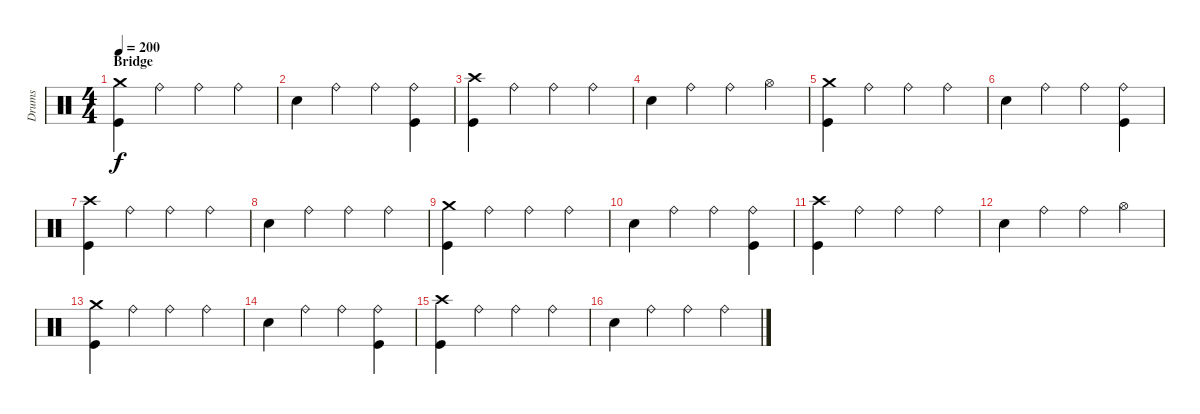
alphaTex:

\track ("Drums" "Drums") {instrument percussion}
\staff {score}
\articulation defaults
\ts (4 4)
\section ("" "Bridge")
\tempo 200
\clef neutral
\ks c
("Crash medium (hit)" "Kick (hit)").4{dy f} "Ride (bell)".4 "Ride (bell)".4 "Ride (bell)".4 |
"Electric Snare (hit)".4 "Ride (bell)".4 "Ride (bell)".4 ("Ride (bell)" "Kick (hit)").4 |
("Crash high (hit)" "Kick (hit)").4 "Ride (bell)".4 "Ride (bell)".4 "Ride (bell)".4 |
"Electric Snare (hit)".4 "Ride (bell)".4 "Ride (bell)".4 "Hi-Hat (open)".4 |
("Crash medium (hit)" "Kick (hit)").4 "Ride (bell)".4 "Ride (bell)".4 "Ride (bell)".4 |
"Electric Snare (hit)".4 "Ride (bell)".4 "Ride (bell)".4 ("Ride (bell)" "Kick (hit)").4 |
("Crash high (hit)" "Kick (hit)").4 "Ride (bell)".4 "Ride (bell)".4 "Ride (bell)".4 |
"Electric Snare (hit)".4 "Ride (bell)".4 "Ride (bell)".4 "Ride (bell)".4 |
("Crash medium (hit)" "Kick (hit)").4 "Ride (bell)".4 "Ride (bell)".4 "Ride (bell)".4 |
"Electric Snare (hit)".4 "Ride (bell)".4 "Ride (bell)".4 ("Ride (bell)" "Kick (hit)").4 |
("Crash high (hit)" "Kick (hit)").4 "Ride (bell)".4 "Ride (bell)".4 "Ride (bell)".4 |
"Electric Snare (hit)".4 "Ride (bell)".4 "Ride (bell)".4 "Hi-Hat (open)".4 |
("Crash medium (hit)" "Kick (hit)").4 "Ride (bell)".4 "Ride (bell)".4 "Ride (bell)".4 |
"Electric Snare (hit)".4 "Ride (bell)".4 "Ride (bell)".4 ("Ride (bell)" "Kick (hit)").4 |
("Crash high (hit)" "Kick (hit)").4 "Ride (bell)".4 "Ride (bell)".4 "Ride (bell)".4 |
"Electric Snare (hit)".4 "Ride (bell)".4 "Ride (bell)".4 "Ride (bell)".4
